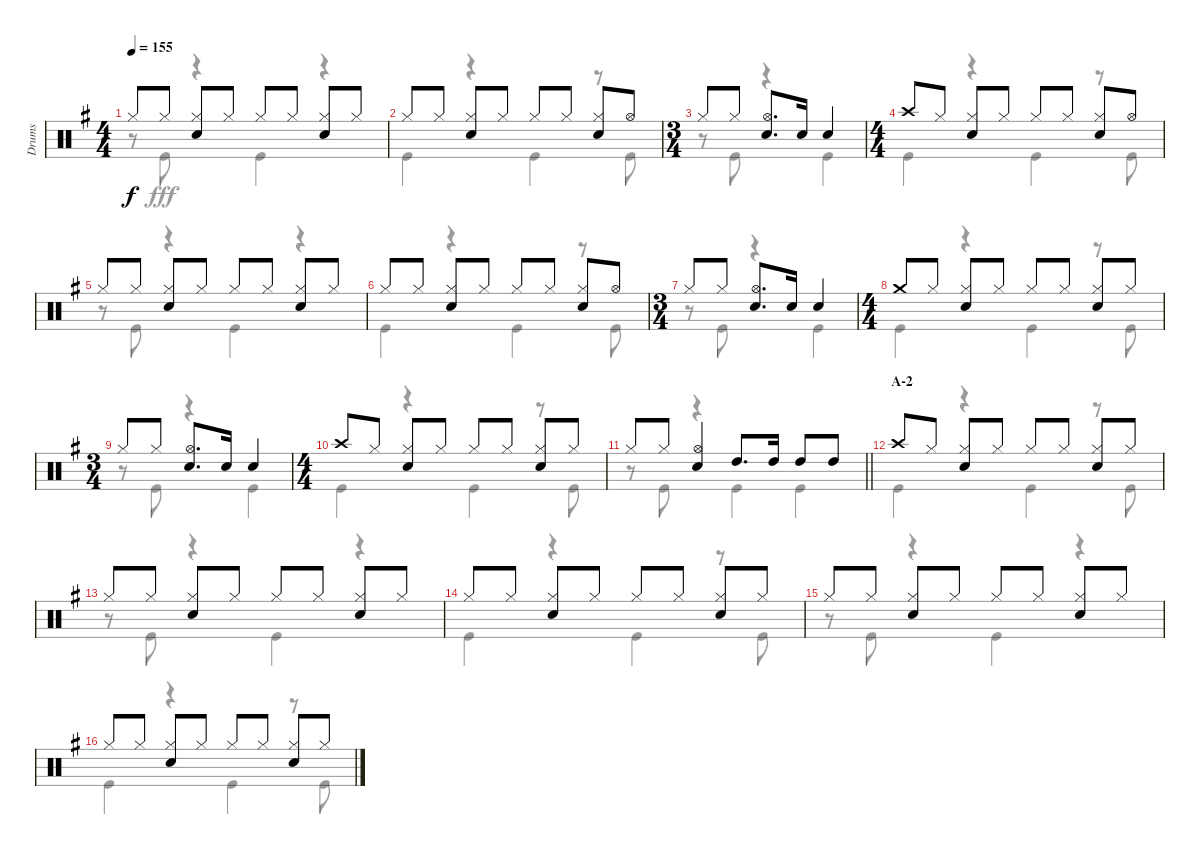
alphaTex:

\track ("Drums" "Drums") {instrument percussion}
\staff {score}
\articulation defaults
\voice
\ts (4 4)
\tempo 155
\clef neutral
\ks g "Hi-Hat (closed)".8{dy f} "Hi-Hat (closed)".8
("Hi-Hat (closed)" "Snare (hit) 2").8 "Hi-Hat (closed)".8 "Hi-Hat (closed)".8 "Hi-Hat (closed)".8 ("Hi-Hat (closed)" "Snare (hit) 2").8 "Hi-Hat (closed)".8 |
"Hi-Hat (closed)".8 "Hi-Hat (closed)".8 ("Hi-Hat (closed)" "Snare (hit) 2").8 "Hi-Hat (closed)".8 "Hi-Hat (closed)".8 "Hi-Hat (closed)".8 ("Hi-Hat (closed)" "Snare (hit) 2").8 "Hi-Hat (open)".8 |
\ts (3 4)
"Hi-Hat (closed)".8 "Hi-Hat (closed)".8 ("Hi-Hat (open)" "Snare (hit) 2").8{d} "Snare (hit) 2".16 "Snare (hit) 2".4 |
\ts (4 4)
"Crash high (hit)".8 "Hi-Hat (closed)".8 ("Hi-Hat (closed)" "Snare (hit) 2").8 "Hi-Hat (closed)".8 "Hi-Hat (closed)".8 "Hi-Hat (closed)".8 ("Hi-Hat (closed)" "Snare (hit) 2").8 "Hi-Hat (open)".8 |
"Hi-Hat (closed)".8 "Hi-Hat (closed)".8 ("Hi-Hat (closed)" "Snare (hit) 2").8 "Hi-Hat (closed)".8 "Hi-Hat (closed)".8 "Hi-Hat (closed)".8 ("Hi-Hat (closed)" "Snare (hit) 2").8 "Hi-Hat (closed)".8 |
"Hi-Hat (closed)".8 "Hi-Hat (closed)".8 ("Hi-Hat (closed)" "Snare (hit) 2").8 "Hi-Hat (closed)".8 "Hi-Hat (closed)".8 "Hi-Hat (closed)".8 ("Hi-Hat (closed)" "Snare (hit) 2").8 "Hi-Hat (open)".8 |
\ts (3 4)
"Hi-Hat (closed)".8 "Hi-Hat (closed)".8 ("Hi-Hat (open)" "Snare (hit) 2").8{d} "Snare (hit) 2".16 "Snare (hit) 2".4 |
\ts (4 4)
"Crash medium (hit)".8 "Hi-Hat (closed)".8 ("Hi-Hat (closed)" "Snare (hit) 2").8 "Hi-Hat (closed)".8 "Hi-Hat (closed)".8 "Hi-Hat (closed)".8 ("Hi-Hat (closed)" "Snare (hit) 2").8 "Hi-Hat (closed)".8 |
\ts (3 4)
"Hi-Hat (closed)".8 "Hi-Hat (closed)".8 ("Hi-Hat (open)" "Snare (hit) 2").8{d} "Snare (hit) 2".16 "Snare (hit) 2".4 |
\ts (4 4)
"Crash high (hit)".8 "Hi-Hat (closed)".8 ("Hi-Hat (closed)" "Snare (hit) 2").8 "Hi-Hat (closed)".8 "Hi-Hat (closed)".8 "Hi-Hat (closed)".8 ("Hi-Hat (closed)" "Snare (hit) 2").8 "Hi-Hat (closed)".8 |
\barLineRight lightlight "Hi-Hat (closed)".8 "Hi-Hat (closed)".8
("Hi-Hat (open)" "Snare (hit) 2").4 "High Tom (hit)".8{d} "High Tom (hit)".16 "High Tom (hit)".8 "High Tom (hit)".8 |
\section ("" "A-2")
"Crash high (hit)".8 "Hi-Hat (closed)".8 ("Hi-Hat (closed)" "Snare (hit) 2").8 "Hi-Hat (closed)".8 "Hi-Hat (closed)".8 "Hi-Hat (closed)".8 ("Hi-Hat (closed)" "Snare (hit) 2").8 "Hi-Hat (closed)".8 |
"Hi-Hat (closed)".8 "Hi-Hat (closed)".8 ("Hi-Hat (closed)" "Snare (hit) 2").8 "Hi-Hat (closed)".8 "Hi-Hat (closed)".8 "Hi-Hat (closed)".8 ("Hi-Hat (closed)" "Snare (hit) 2").8 "Hi-Hat (closed)".8 |
"Hi-Hat (closed)".8 "Hi-Hat (closed)".8 ("Hi-Hat (closed)" "Snare (hit) 2").8 "Hi-Hat (closed)".8 "Hi-Hat (closed)".8 "Hi-Hat (closed)".8 ("Hi-Hat (closed)" "Snare (hit) 2").8 "Hi-Hat (closed)".8 |
"Hi-Hat (closed)".8 "Hi-Hat (closed)".8 ("Hi-Hat (closed)" "Snare (hit) 2").8 "Hi-Hat (closed)".8 "Hi-Hat (closed)".8 "Hi-Hat (closed)".8 ("Hi-Hat (closed)" "Snare (hit) 2").8 "Hi-Hat (closed)".8 |
"Hi-Hat (closed)".8 "Hi-Hat (closed)".8 ("Hi-Hat (closed)" "Snare (hit) 2").8 "Hi-Hat (closed)".8 "Hi-Hat (closed)".8 "Hi-Hat (closed)".8 ("Hi-Hat (closed)" "Snare (hit) 2").8 "Hi-Hat (closed)".8
\voice
\clef neutral
\ottava regular
\simile none
\ks g
r.8{dy fff} "Kick (hit)".8 r.4 "Kick (hit)".4 r.4 |
"Kick (hit)".4 r.4 "Kick (hit)".4 r.8 "Kick (hit)".8 |
r.8 "Kick (hit)".8 r.4 "Kick (hit)".4 |
"Kick (hit)".4 r.4 "Kick (hit)".4 r.8 "Kick (hit)".8 |
r.8 "Kick (hit)".8 r.4 "Kick (hit)".4 r.4 |
"Kick (hit)".4 r.4 "Kick (hit)".4 r.8 "Kick (hit)".8 |
r.8 "Kick (hit)".8 r.4 "Kick (hit)".4 |
"Kick (hit)".4 r.4 "Kick (hit)".4 r.8 "Kick (hit)".8 |
r.8 "Kick (hit)".8 r.4 "Kick (hit)".4 |
"Kick (hit)".4 r.4 "Kick (hit)".4 r.8 "Kick (hit)".8 |
\barLineRight lightlight
r.8 "Kick (hit)".8 r.4 "Kick (hit)".4 "Kick (hit)".4 |
"Kick (hit)".4 r.4 "Kick (hit)".4 r.8 "Kick (hit)".8 |
r.8 "Kick (hit)".8 r.4 "Kick (hit)".4 r.4 |
"Kick (hit)".4 r.4 "Kick (hit)".4 r.8 "Kick (hit)".8 |
r.8 "Kick (hit)".8 r.4 "Kick (hit)".4 r.4 |
"Kick (hit)".4 r.4 "Kick (hit)".4 r.8 "Kick (hit)".8
